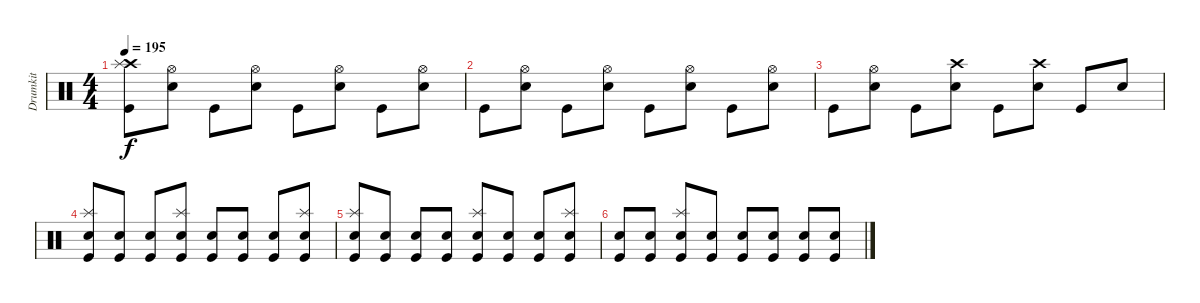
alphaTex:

\track ("Drumkit" "Drumkit") {instrument percussion}
\staff {score}
\articulation defaults
\ts (4 4)
\tempo 195
\clef neutral
\ks c
("Kick (hit)" "Crash high (hit)" "Splash (hit)").8{dy f} ("Snare (hit) 2" "Hi-Hat (open)").8 "Kick (hit)".8 ("Snare (hit) 2" "Hi-Hat (open)").8 "Kick (hit)".8 ("Snare (hit) 2" "Hi-Hat (open)").8 "Kick (hit)".8 ("Snare (hit) 2" "Hi-Hat (open)").8 |
"Kick (hit)".8 ("Snare (hit) 2" "Hi-Hat (open)").8 "Kick (hit)".8 ("Snare (hit) 2" "Hi-Hat (open)").8 "Kick (hit)".8 ("Snare (hit) 2" "Hi-Hat (open)").8 "Kick (hit)".8 ("Snare (hit) 2" "Hi-Hat (open)").8 |
"Kick (hit)".8 ("Snare (hit) 2" "Hi-Hat (open)").8 "Kick (hit)".8 ("Snare (hit) 2" "Crash high (hit)").8 "Kick (hit)".8 ("Snare (hit) 2" "Crash high (hit)").8 "Kick (hit)".8 "Snare (hit) 2".8 |
("Snare (hit) 2" "Kick (hit)" "Splash (hit)").8 ("Snare (hit) 2" "Kick (hit)").8 ("Snare (hit) 2" "Kick (hit)").8 ("Snare (hit) 2" "Kick (hit)" "Splash (hit)").8 ("Snare (hit) 2" "Kick (hit)").8 ("Snare (hit) 2" "Kick (hit)").8 ("Snare (hit) 2" "Kick (hit)").8 ("Snare (hit) 2" "Kick (hit)" "Splash (hit)").8 |
("Snare (hit) 2" "Kick (hit)" "Splash (hit)").8 ("Snare (hit) 2" "Kick (hit)").8 ("Snare (hit) 2" "Kick (hit)").8 ("Snare (hit) 2" "Kick (hit)").8 ("Snare (hit) 2" "Kick (hit)" "Splash (hit)").8 ("Snare (hit) 2" "Kick (hit)").8 ("Snare (hit) 2" "Kick (hit)").8 ("Snare (hit) 2" "Kick (hit)" "Splash (hit)").8 |
("Snare (hit) 2" "Kick (hit)").8 ("Snare (hit) 2" "Kick (hit)").8 ("Snare (hit) 2" "Kick (hit)" "Splash (hit)").8 ("Snare (hit) 2" "Kick (hit)").8 ("Snare (hit) 2" "Kick (hit)").8 ("Snare (hit) 2" "Kick (hit)").8 ("Snare (hit) 2" "Kick (hit)").8 ("Snare (hit) 2" "Kick (hit)").8
